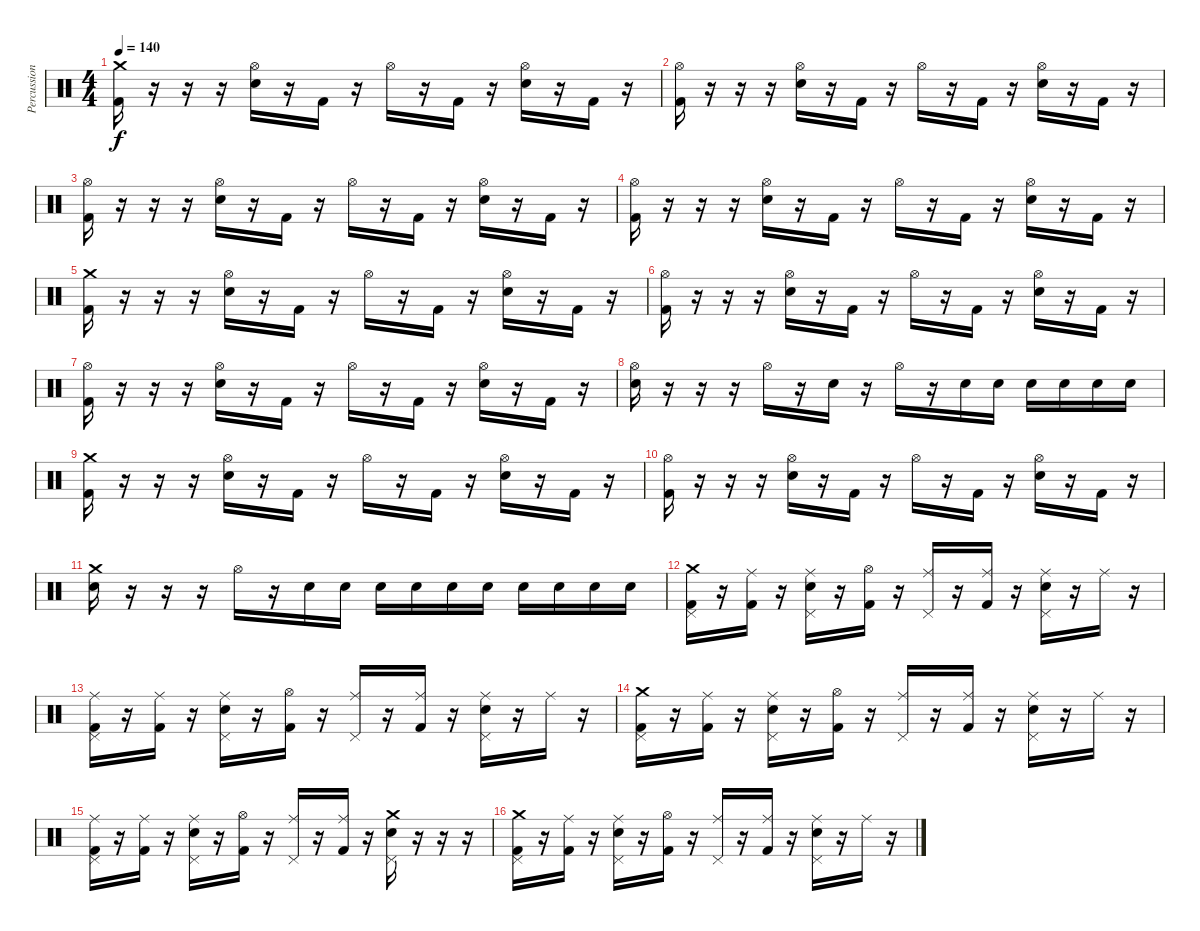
\track ("Percussion" "Percussion") {instrument percussion}
\staff {score}
\articulation defaults
\ts (4 4)
\tempo 140
\clef neutral
\ks c
("Crash medium (hit)" "Kick (hit) 2").16{dy f} r.16 r.16 r.16 ("Hi-Hat (open)" "Snare (hit) 2").16 r.16 "Kick (hit) 2".16 r.16 "Hi-Hat (open)".16 r.16 "Kick (hit) 2".16 r.16 ("Hi-Hat (open)" "Snare (hit) 2").16 r.16 "Kick (hit) 2".16 r.16 |
("Hi-Hat (open)" "Kick (hit) 2").16 r.16 r.16 r.16 ("Hi-Hat (open)" "Snare (hit) 2").16 r.16 "Kick (hit) 2".16 r.16 "Hi-Hat (open)".16 r.16 "Kick (hit) 2".16 r.16 ("Hi-Hat (open)" "Snare (hit) 2").16 r.16 "Kick (hit) 2".16 r.16 |
("Hi-Hat (open)" "Kick (hit) 2").16 r.16 r.16 r.16 ("Hi-Hat (open)" "Snare (hit) 2").16 r.16 "Kick (hit) 2".16 r.16 "Hi-Hat (open)".16 r.16 "Kick (hit) 2".16 r.16 ("Hi-Hat (open)" "Snare (hit) 2").16 r.16 "Kick (hit) 2".16 r.16 |
("Hi-Hat (open)" "Kick (hit) 2").16 r.16 r.16 r.16 ("Hi-Hat (open)" "Snare (hit) 2").16 r.16 "Kick (hit) 2".16 r.16 "Hi-Hat (open)".16 r.16 "Kick (hit) 2".16 r.16 ("Hi-Hat (open)" "Snare (hit) 2").16 r.16 "Kick (hit) 2".16 r.16 |
("Crash medium (hit)" "Kick (hit) 2").16 r.16 r.16 r.16 ("Hi-Hat (open)" "Snare (hit) 2").16 r.16 "Kick (hit) 2".16 r.16 "Hi-Hat (open)".16 r.16 "Kick (hit) 2".16 r.16 ("Hi-Hat (open)" "Snare (hit) 2").16 r.16 "Kick (hit) 2".16 r.16 |
("Hi-Hat (open)" "Kick (hit) 2").16 r.16 r.16 r.16 ("Hi-Hat (open)" "Snare (hit) 2").16 r.16 "Kick (hit) 2".16 r.16 "Hi-Hat (open)".16 r.16 "Kick (hit) 2".16 r.16 ("Hi-Hat (open)" "Snare (hit) 2").16 r.16 "Kick (hit) 2".16 r.16 |
("Hi-Hat (open)" "Kick (hit) 2").16 r.16 r.16 r.16 ("Hi-Hat (open)" "Snare (hit) 2").16 r.16 "Kick (hit) 2".16 r.16 "Hi-Hat (open)".16 r.16 "Kick (hit) 2".16 r.16 ("Hi-Hat (open)" "Snare (hit) 2").16 r.16 "Kick (hit) 2".16 r.16 |
("Hi-Hat (open)" "Snare (hit) 2").16 r.16 r.16 r.16 "Hi-Hat (open)".16 r.16 "Snare (hit) 2".16 r.16 "Hi-Hat (open)".16 r.16 "Snare (hit) 2".16 "Snare (hit) 2".16 "Snare (hit) 2".16 "Snare (hit) 2".16 "Snare (hit) 2".16 "Snare (hit) 2".16 |
("Crash medium (hit)" "Kick (hit) 2").16 r.16 r.16 r.16 ("Hi-Hat (open)" "Snare (hit) 2").16 r.16 "Kick (hit) 2".16 r.16 "Hi-Hat (open)".16 r.16 "Kick (hit) 2".16 r.16 ("Hi-Hat (open)" "Snare (hit) 2").16 r.16 "Kick (hit) 2".16 r.16 |
("Hi-Hat (open)" "Kick (hit) 2").16 r.16 r.16 r.16 ("Hi-Hat (open)" "Snare (hit) 2").16 r.16 "Kick (hit) 2".16 r.16 "Hi-Hat (open)".16 r.16 "Kick (hit) 2".16 r.16 ("Hi-Hat (open)" "Snare (hit) 2").16 r.16 "Kick (hit) 2".16 r.16 |
("Crash medium (hit)" "Snare (hit) 2").16 r.16 r.16 r.16 "Hi-Hat (open)".16 r.16 "Snare (hit) 2".16 "Snare (hit) 2".16 "Snare (hit) 2".16 "Snare (hit) 2".16 "Snare (hit) 2".16 "Snare (hit) 2".16 "Snare (hit) 2".16 "Snare (hit) 2".16 "Snare (hit) 2".16 "Snare (hit) 2".16 |
("Crash medium (hit)" "Pedal Hi-Hat (hit)" "Kick (hit) 2").16 r.16 ("Ride (middle)" "Kick (hit) 2").16 r.16 ("Ride (middle)" "Pedal Hi-Hat (hit)" "Snare (hit) 2").16 r.16 ("Hi-Hat (open)" "Kick (hit) 2").16 r.16 ("Ride (middle)" "Pedal Hi-Hat (hit)").16 r.16 ("Ride (middle)" "Kick (hit) 2").16 r.16 ("Ride (middle)" "Pedal Hi-Hat (hit)" "Snare (hit) 2").16 r.16 "Ride (middle)".16 r.16 |
("Ride (middle)" "Pedal Hi-Hat (hit)" "Kick (hit) 2").16 r.16 ("Ride (middle)" "Kick (hit) 2").16 r.16 ("Ride (middle)" "Pedal Hi-Hat (hit)" "Snare (hit) 2").16 r.16 ("Hi-Hat (open)" "Kick (hit) 2").16 r.16 ("Ride (middle)" "Pedal Hi-Hat (hit)").16 r.16 ("Ride (middle)" "Kick (hit) 2").16 r.16 ("Ride (middle)" "Pedal Hi-Hat (hit)" "Snare (hit) 2").16 r.16 "Ride (middle)".16 r.16 |
("Crash medium (hit)" "Pedal Hi-Hat (hit)" "Kick (hit) 2").16 r.16 ("Ride (middle)" "Kick (hit) 2").16 r.16 ("Ride (middle)" "Pedal Hi-Hat (hit)" "Snare (hit) 2").16 r.16 ("Hi-Hat (open)" "Kick (hit) 2").16 r.16 ("Ride (middle)" "Pedal Hi-Hat (hit)").16 r.16 ("Ride (middle)" "Kick (hit) 2").16 r.16 ("Ride (middle)" "Pedal Hi-Hat (hit)" "Snare (hit) 2").16 r.16 "Ride (middle)".16 r.16 |
("Ride (middle)" "Pedal Hi-Hat (hit)" "Kick (hit) 2").16 r.16 ("Ride (middle)" "Kick (hit) 2").16 r.16 ("Ride (middle)" "Pedal Hi-Hat (hit)" "Snare (hit) 2").16 r.16 ("Hi-Hat (open)" "Kick (hit) 2").16 r.16 ("Ride (middle)" "Pedal Hi-Hat (hit)").16 r.16 ("Ride (middle)" "Kick (hit) 2").16 r.16 ("Crash medium (hit)" "Pedal Hi-Hat (hit)" "Snare (hit) 2").16 r.16 r.16 r.16 |
("Crash medium (hit)" "Pedal Hi-Hat (hit)" "Kick (hit) 2").16 r.16 ("Ride (middle)" "Kick (hit) 2").16 r.16 ("Ride (middle)" "Pedal Hi-Hat (hit)" "Snare (hit) 2").16 r.16 ("Hi-Hat (open)" "Kick (hit) 2").16 r.16 ("Ride (middle)" "Pedal Hi-Hat (hit)").16 r.16 ("Ride (middle)" "Kick (hit) 2").16 r.16 ("Ride (middle)" "Pedal Hi-Hat (hit)" "Snare (hit) 2").16 r.16 "Ride (middle)".16 r.16
